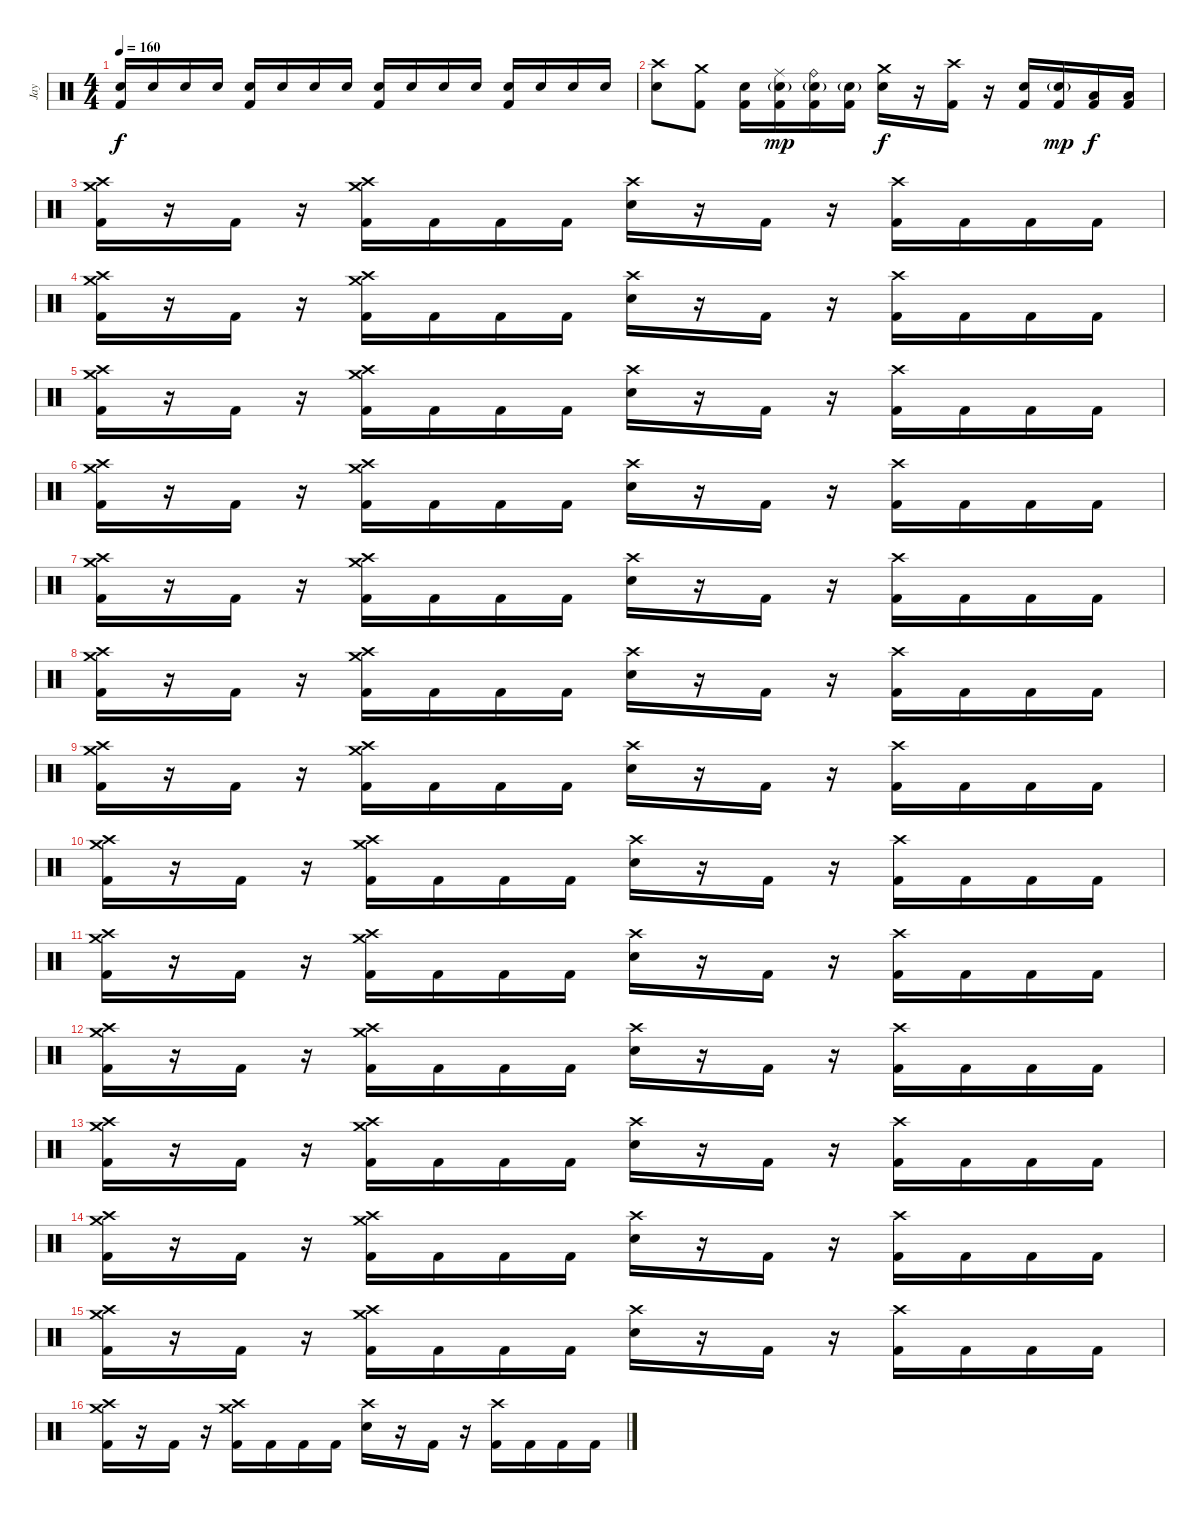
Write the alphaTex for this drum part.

\track ("Jay" "Jay") {instrument percussion}
\staff {score}
\articulation defaults
\ts (4 4)
\tempo 160
\clef neutral
\ks c
("Electric Snare (hit)" "Kick (hit) 2").16{dy f} "Electric Snare (hit)".16 "Electric Snare (hit)".16 "Electric Snare (hit)".16 ("Electric Snare (hit)" "Kick (hit) 2").16 "Electric Snare (hit)".16 "Electric Snare (hit)".16 "Electric Snare (hit)".16 ("Electric Snare (hit)" "Kick (hit) 2").16 "Electric Snare (hit)".16 "Electric Snare (hit)".16 "Electric Snare (hit)".16 ("Electric Snare (hit)" "Kick (hit) 2").16 "Electric Snare (hit)".16 "Electric Snare (hit)".16 "Electric Snare (hit)".16 |
("Crash high (hit)" "Electric Snare (hit)").8 ("Crash medium (hit)" "Kick (hit) 2").8 ("Electric Snare (hit)" "Kick (hit) 2").16 ("Ride (middle)" "Electric Snare (hit)"{g} "Kick (hit) 2").16{dy mp} ("Ride (bell)" "Electric Snare (hit)"{g} "Kick (hit) 2").16 ("Electric Snare (hit)"{g} "Kick (hit) 2").16 ("Crash medium (hit)" "Electric Snare (hit)").16{dy f} r.16 ("Crash high (hit)" "Kick (hit) 2").16 r.16 ("Electric Snare (hit)" "Kick (hit) 2").16 ("Electric Snare (hit)"{g} "Kick (hit) 2").16{dy mp} ("Low Tom (hit)" "Kick (hit) 2").16{dy f} ("Low Tom (hit)" "Kick (hit) 2").16 |
("Crash high (hit)" "Crash medium (hit)" "Kick (hit) 2").16 r.16 "Kick (hit) 2".16 r.16 ("Crash high (hit)" "Crash medium (hit)" "Kick (hit) 2").16 "Kick (hit) 2".16 "Kick (hit) 2".16 "Kick (hit) 2".16 ("Crash high (hit)" "Electric Snare (hit)").16 r.16 "Kick (hit) 2".16 r.16 ("Crash high (hit)" "Kick (hit) 2").16 "Kick (hit) 2".16 "Kick (hit) 2".16 "Kick (hit) 2".16 |
("Crash high (hit)" "Crash medium (hit)" "Kick (hit) 2").16 r.16 "Kick (hit) 2".16 r.16 ("Crash high (hit)" "Crash medium (hit)" "Kick (hit) 2").16 "Kick (hit) 2".16 "Kick (hit) 2".16 "Kick (hit) 2".16 ("Crash high (hit)" "Electric Snare (hit)").16 r.16 "Kick (hit) 2".16 r.16 ("Crash high (hit)" "Kick (hit) 2").16 "Kick (hit) 2".16 "Kick (hit) 2".16 "Kick (hit) 2".16 |
("Crash high (hit)" "Crash medium (hit)" "Kick (hit) 2").16 r.16 "Kick (hit) 2".16 r.16 ("Crash high (hit)" "Crash medium (hit)" "Kick (hit) 2").16 "Kick (hit) 2".16 "Kick (hit) 2".16 "Kick (hit) 2".16 ("Crash high (hit)" "Electric Snare (hit)").16 r.16 "Kick (hit) 2".16 r.16 ("Crash high (hit)" "Kick (hit) 2").16 "Kick (hit) 2".16 "Kick (hit) 2".16 "Kick (hit) 2".16 |
("Crash high (hit)" "Crash medium (hit)" "Kick (hit) 2").16 r.16 "Kick (hit) 2".16 r.16 ("Crash high (hit)" "Crash medium (hit)" "Kick (hit) 2").16 "Kick (hit) 2".16 "Kick (hit) 2".16 "Kick (hit) 2".16 ("Crash high (hit)" "Electric Snare (hit)").16 r.16 "Kick (hit) 2".16 r.16 ("Crash high (hit)" "Kick (hit) 2").16 "Kick (hit) 2".16 "Kick (hit) 2".16 "Kick (hit) 2".16 |
("Crash high (hit)" "Crash medium (hit)" "Kick (hit) 2").16 r.16 "Kick (hit) 2".16 r.16 ("Crash high (hit)" "Crash medium (hit)" "Kick (hit) 2").16 "Kick (hit) 2".16 "Kick (hit) 2".16 "Kick (hit) 2".16 ("Crash high (hit)" "Electric Snare (hit)").16 r.16 "Kick (hit) 2".16 r.16 ("Crash high (hit)" "Kick (hit) 2").16 "Kick (hit) 2".16 "Kick (hit) 2".16 "Kick (hit) 2".16 |
("Crash high (hit)" "Crash medium (hit)" "Kick (hit) 2").16 r.16 "Kick (hit) 2".16 r.16 ("Crash high (hit)" "Crash medium (hit)" "Kick (hit) 2").16 "Kick (hit) 2".16 "Kick (hit) 2".16 "Kick (hit) 2".16 ("Crash high (hit)" "Electric Snare (hit)").16 r.16 "Kick (hit) 2".16 r.16 ("Crash high (hit)" "Kick (hit) 2").16 "Kick (hit) 2".16 "Kick (hit) 2".16 "Kick (hit) 2".16 |
("Crash high (hit)" "Crash medium (hit)" "Kick (hit) 2").16 r.16 "Kick (hit) 2".16 r.16 ("Crash high (hit)" "Crash medium (hit)" "Kick (hit) 2").16 "Kick (hit) 2".16 "Kick (hit) 2".16 "Kick (hit) 2".16 ("Crash high (hit)" "Electric Snare (hit)").16 r.16 "Kick (hit) 2".16 r.16 ("Crash high (hit)" "Kick (hit) 2").16 "Kick (hit) 2".16 "Kick (hit) 2".16 "Kick (hit) 2".16 |
("Crash high (hit)" "Crash medium (hit)" "Kick (hit) 2").16 r.16 "Kick (hit) 2".16 r.16 ("Crash high (hit)" "Crash medium (hit)" "Kick (hit) 2").16 "Kick (hit) 2".16 "Kick (hit) 2".16 "Kick (hit) 2".16 ("Crash high (hit)" "Electric Snare (hit)").16 r.16 "Kick (hit) 2".16 r.16 ("Crash high (hit)" "Kick (hit) 2").16 "Kick (hit) 2".16 "Kick (hit) 2".16 "Kick (hit) 2".16 |
("Crash high (hit)" "Crash medium (hit)" "Kick (hit) 2").16 r.16 "Kick (hit) 2".16 r.16 ("Crash high (hit)" "Crash medium (hit)" "Kick (hit) 2").16 "Kick (hit) 2".16 "Kick (hit) 2".16 "Kick (hit) 2".16 ("Crash high (hit)" "Electric Snare (hit)").16 r.16 "Kick (hit) 2".16 r.16 ("Crash high (hit)" "Kick (hit) 2").16 "Kick (hit) 2".16 "Kick (hit) 2".16 "Kick (hit) 2".16 |
("Crash high (hit)" "Crash medium (hit)" "Kick (hit) 2").16 r.16 "Kick (hit) 2".16 r.16 ("Crash high (hit)" "Crash medium (hit)" "Kick (hit) 2").16 "Kick (hit) 2".16 "Kick (hit) 2".16 "Kick (hit) 2".16 ("Crash high (hit)" "Electric Snare (hit)").16 r.16 "Kick (hit) 2".16 r.16 ("Crash high (hit)" "Kick (hit) 2").16 "Kick (hit) 2".16 "Kick (hit) 2".16 "Kick (hit) 2".16 |
("Crash high (hit)" "Crash medium (hit)" "Kick (hit) 2").16 r.16 "Kick (hit) 2".16 r.16 ("Crash high (hit)" "Crash medium (hit)" "Kick (hit) 2").16 "Kick (hit) 2".16 "Kick (hit) 2".16 "Kick (hit) 2".16 ("Crash high (hit)" "Electric Snare (hit)").16 r.16 "Kick (hit) 2".16 r.16 ("Crash high (hit)" "Kick (hit) 2").16 "Kick (hit) 2".16 "Kick (hit) 2".16 "Kick (hit) 2".16 |
("Crash high (hit)" "Crash medium (hit)" "Kick (hit) 2").16 r.16 "Kick (hit) 2".16 r.16 ("Crash high (hit)" "Crash medium (hit)" "Kick (hit) 2").16 "Kick (hit) 2".16 "Kick (hit) 2".16 "Kick (hit) 2".16 ("Crash high (hit)" "Electric Snare (hit)").16 r.16 "Kick (hit) 2".16 r.16 ("Crash high (hit)" "Kick (hit) 2").16 "Kick (hit) 2".16 "Kick (hit) 2".16 "Kick (hit) 2".16 |
("Crash high (hit)" "Crash medium (hit)" "Kick (hit) 2").16 r.16 "Kick (hit) 2".16 r.16 ("Crash high (hit)" "Crash medium (hit)" "Kick (hit) 2").16 "Kick (hit) 2".16 "Kick (hit) 2".16 "Kick (hit) 2".16 ("Crash high (hit)" "Electric Snare (hit)").16 r.16 "Kick (hit) 2".16 r.16 ("Crash high (hit)" "Kick (hit) 2").16 "Kick (hit) 2".16 "Kick (hit) 2".16 "Kick (hit) 2".16 |
("Crash high (hit)" "Crash medium (hit)" "Kick (hit) 2").16 r.16 "Kick (hit) 2".16 r.16 ("Crash high (hit)" "Crash medium (hit)" "Kick (hit) 2").16 "Kick (hit) 2".16 "Kick (hit) 2".16 "Kick (hit) 2".16 ("Crash high (hit)" "Electric Snare (hit)").16 r.16 "Kick (hit) 2".16 r.16 ("Crash high (hit)" "Kick (hit) 2").16 "Kick (hit) 2".16 "Kick (hit) 2".16 "Kick (hit) 2".16
